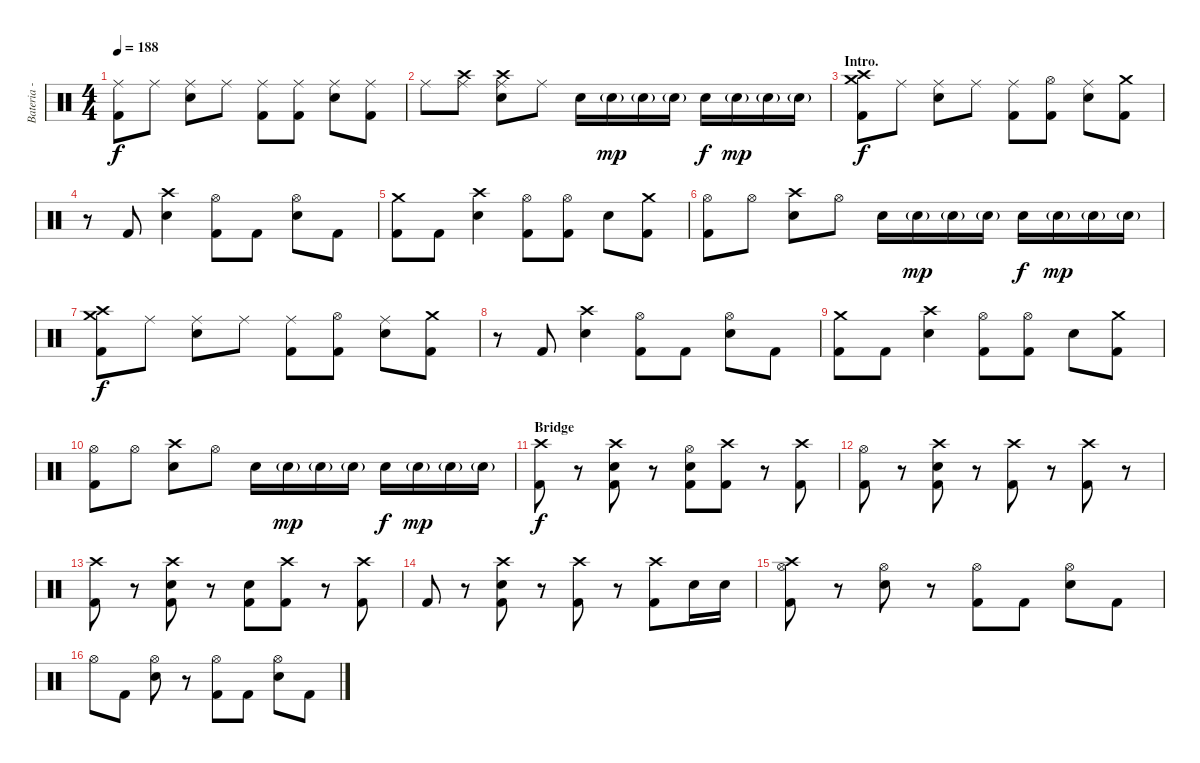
\track ("Bateria - Larzon" "Bateria - ") {instrument percussion}
\staff {score}
\articulation defaults
\ts (4 4)
\tempo 188
\clef neutral
\ks c
("Kick (hit) 2" "Ride (middle)").8{dy f} "Ride (middle)".8 ("Snare (hit) 2" "Ride (middle)").8 "Ride (middle)".8 ("Kick (hit) 2" "Ride (middle)").8 ("Kick (hit) 2" "Ride (middle)").8 ("Snare (hit) 2" "Ride (middle)").8 ("Kick (hit) 2" "Ride (middle)").8 |
"Ride (middle)".8 ("Crash high (hit)" "Ride (middle)").8 ("Crash high (hit)" "Snare (hit) 2" "Ride (middle)").8 "Ride (middle)".8 "Snare (hit) 2".16 "Snare (hit) 2"{g}.16{dy mp} "Snare (hit) 2"{g}.16 "Snare (hit) 2"{g}.16 "Snare (hit) 2".16{dy f} "Snare (hit) 2"{g}.16{dy mp} "Snare (hit) 2"{g}.16 "Snare (hit) 2"{g}.16 |
\section ("" "Intro.")
("Kick (hit) 2" "Crash medium (hit)" "Crash high (hit)").8{dy f} "Ride (middle)".8 ("Snare (hit) 2" "Ride (middle)").8 "Ride (middle)".8 ("Kick (hit) 2" "Ride (middle)").8 ("Kick (hit) 2" "Hi-Hat (open)").8 ("Snare (hit) 2" "Ride (middle)").8 ("Kick (hit) 2" "Crash medium (hit)").8 |
r.8 "Kick (hit) 2".8 ("Snare (hit) 2" "Crash high (hit)").4 ("Kick (hit) 2" "Hi-Hat (open)").8 "Kick (hit) 2".8 ("Snare (hit) 2" "Hi-Hat (open)").8 "Kick (hit) 2".8 |
("Kick (hit) 2" "Crash medium (hit)").8 "Kick (hit) 2".8 ("Snare (hit) 2" "Crash high (hit)").4 ("Kick (hit) 2" "Hi-Hat (open)").8 ("Kick (hit) 2" "Hi-Hat (open)").8 "Snare (hit) 2".8 ("Kick (hit) 2" "Crash medium (hit)").8 |
("Kick (hit) 2" "Hi-Hat (open)").8 "Hi-Hat (open)".8 ("Snare (hit) 2" "Crash high (hit)").8 "Hi-Hat (open)".8 "Snare (hit) 2".16 "Snare (hit) 2"{g}.16{dy mp} "Snare (hit) 2"{g}.16 "Snare (hit) 2"{g}.16 "Snare (hit) 2".16{dy f} "Snare (hit) 2"{g}.16{dy mp} "Snare (hit) 2"{g}.16 "Snare (hit) 2"{g}.16 |
("Kick (hit) 2" "Crash medium (hit)" "Crash high (hit)").8{dy f} "Ride (middle)".8 ("Snare (hit) 2" "Ride (middle)").8 "Ride (middle)".8 ("Kick (hit) 2" "Ride (middle)").8 ("Kick (hit) 2" "Hi-Hat (open)").8 ("Snare (hit) 2" "Ride (middle)").8 ("Kick (hit) 2" "Crash medium (hit)").8 |
r.8 "Kick (hit) 2".8 ("Snare (hit) 2" "Crash high (hit)").4 ("Kick (hit) 2" "Hi-Hat (open)").8 "Kick (hit) 2".8 ("Snare (hit) 2" "Hi-Hat (open)").8 "Kick (hit) 2".8 |
("Kick (hit) 2" "Crash medium (hit)").8 "Kick (hit) 2".8 ("Snare (hit) 2" "Crash high (hit)").4 ("Kick (hit) 2" "Hi-Hat (open)").8 ("Kick (hit) 2" "Hi-Hat (open)").8 "Snare (hit) 2".8 ("Kick (hit) 2" "Crash medium (hit)").8 |
("Kick (hit) 2" "Hi-Hat (open)").8 "Hi-Hat (open)".8 ("Snare (hit) 2" "Crash high (hit)").8 "Hi-Hat (open)".8 "Snare (hit) 2".16 "Snare (hit) 2"{g}.16{dy mp} "Snare (hit) 2"{g}.16 "Snare (hit) 2"{g}.16 "Snare (hit) 2".16{dy f} "Snare (hit) 2"{g}.16{dy mp} "Snare (hit) 2"{g}.16 "Snare (hit) 2"{g}.16 |
\section ("" "Bridge")
("Kick (hit) 2" "Crash high (hit)").8{dy f} r.8 ("Kick (hit) 2" "Snare (hit) 2" "Crash high (hit)").8 r.8 ("Kick (hit) 2" "Snare (hit) 2" "Hi-Hat (open)").8 ("Kick (hit) 2" "Crash high (hit)").8 r.8 ("Kick (hit) 2" "Crash high (hit)").8 |
("Kick (hit) 2" "Hi-Hat (open)").8 r.8 ("Kick (hit) 2" "Snare (hit) 2" "Crash high (hit)").8 r.8 ("Kick (hit) 2" "Crash high (hit)").8 r.8 ("Kick (hit) 2" "Crash high (hit)").8 r.8 |
("Kick (hit) 2" "Crash high (hit)").8 r.8 ("Kick (hit) 2" "Snare (hit) 2" "Crash high (hit)").8 r.8 ("Kick (hit) 2" "Snare (hit) 2").8 ("Kick (hit) 2" "Crash high (hit)").8 r.8 ("Kick (hit) 2" "Crash high (hit)").8 |
"Kick (hit) 2".8 r.8 ("Kick (hit) 2" "Snare (hit) 2" "Crash high (hit)").8 r.8 ("Kick (hit) 2" "Crash high (hit)").8 r.8 ("Kick (hit) 2" "Crash high (hit)").8 "Snare (hit) 2".16 "Snare (hit) 2".16 |
("Kick (hit) 2" "Crash high (hit)" "Hi-Hat (open)").8 r.8 ("Snare (hit) 2" "Hi-Hat (open)").8 r.8 ("Kick (hit) 2" "Hi-Hat (open)").8 "Kick (hit) 2".8 ("Snare (hit) 2" "Hi-Hat (open)").8 "Kick (hit) 2".8 |
"Hi-Hat (open)".8 "Kick (hit) 2".8 ("Snare (hit) 2" "Hi-Hat (open)").8 r.8 ("Kick (hit) 2" "Hi-Hat (open)").8 "Kick (hit) 2".8 ("Snare (hit) 2" "Hi-Hat (open)").8 "Kick (hit) 2".8
